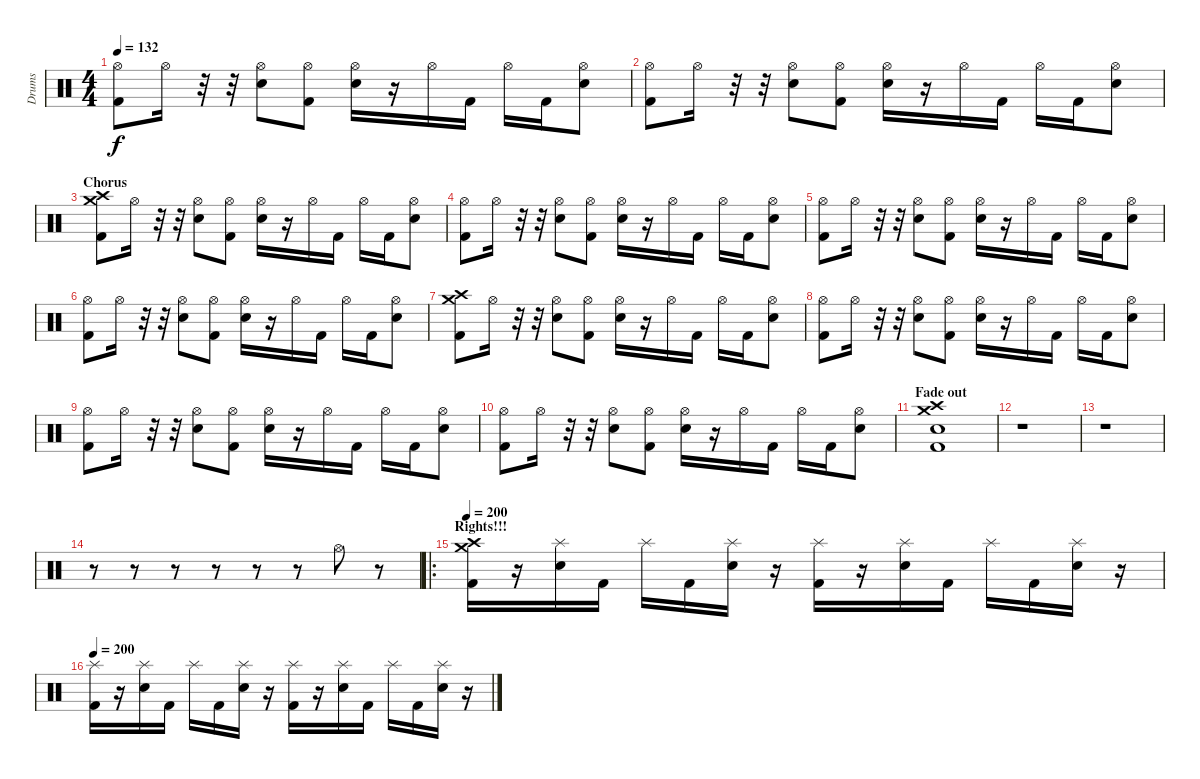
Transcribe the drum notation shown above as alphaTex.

\track ("Drums" "Drums") {instrument percussion}
\staff {score}
\articulation defaults
\ts (4 4)
\tempo 132
\clef neutral
\ks c
("Hi-Hat (open)" "Kick (hit) 2").8{dy f} "Hi-Hat (open)".16 r.32 r.32 ("Hi-Hat (open)" "Snare (hit) 2").8 ("Hi-Hat (open)" "Kick (hit) 2").8 ("Hi-Hat (open)" "Snare (hit) 2").16 r.16 "Hi-Hat (open)".16 "Kick (hit) 2".16 "Hi-Hat (open)".16 "Kick (hit) 2".16 ("Hi-Hat (open)" "Snare (hit) 2").8 |
("Hi-Hat (open)" "Kick (hit) 2").8 "Hi-Hat (open)".16 r.32 r.32 ("Hi-Hat (open)" "Snare (hit) 2").8 ("Hi-Hat (open)" "Kick (hit) 2").8 ("Hi-Hat (open)" "Snare (hit) 2").16 r.16 "Hi-Hat (open)".16 "Kick (hit) 2".16 "Hi-Hat (open)".16 "Kick (hit) 2".16 ("Hi-Hat (open)" "Snare (hit) 2").8 |
\section ("" "Chorus")
("Crash medium (hit)" "Crash high (hit)" "Kick (hit) 2").8 "Hi-Hat (open)".16 r.32 r.32 ("Hi-Hat (open)" "Snare (hit) 2").8 ("Hi-Hat (open)" "Kick (hit) 2").8 ("Hi-Hat (open)" "Snare (hit) 2").16 r.16 "Hi-Hat (open)".16 "Kick (hit) 2".16 "Hi-Hat (open)".16 "Kick (hit) 2".16 ("Hi-Hat (open)" "Snare (hit) 2").8 |
("Hi-Hat (open)" "Kick (hit) 2").8 "Hi-Hat (open)".16 r.32 r.32 ("Hi-Hat (open)" "Snare (hit) 2").8 ("Hi-Hat (open)" "Kick (hit) 2").8 ("Hi-Hat (open)" "Snare (hit) 2").16 r.16 "Hi-Hat (open)".16 "Kick (hit) 2".16 "Hi-Hat (open)".16 "Kick (hit) 2".16 ("Hi-Hat (open)" "Snare (hit) 2").8 |
("Hi-Hat (open)" "Kick (hit) 2").8 "Hi-Hat (open)".16 r.32 r.32 ("Hi-Hat (open)" "Snare (hit) 2").8 ("Hi-Hat (open)" "Kick (hit) 2").8 ("Hi-Hat (open)" "Snare (hit) 2").16 r.16 "Hi-Hat (open)".16 "Kick (hit) 2".16 "Hi-Hat (open)".16 "Kick (hit) 2".16 ("Hi-Hat (open)" "Snare (hit) 2").8 |
("Hi-Hat (open)" "Kick (hit) 2").8 "Hi-Hat (open)".16 r.32 r.32 ("Hi-Hat (open)" "Snare (hit) 2").8 ("Hi-Hat (open)" "Kick (hit) 2").8 ("Hi-Hat (open)" "Snare (hit) 2").16 r.16 "Hi-Hat (open)".16 "Kick (hit) 2".16 "Hi-Hat (open)".16 "Kick (hit) 2".16 ("Hi-Hat (open)" "Snare (hit) 2").8 |
("Crash medium (hit)" "Crash high (hit)" "Kick (hit) 2").8 "Hi-Hat (open)".16 r.32 r.32 ("Hi-Hat (open)" "Snare (hit) 2").8 ("Hi-Hat (open)" "Kick (hit) 2").8 ("Hi-Hat (open)" "Snare (hit) 2").16 r.16 "Hi-Hat (open)".16 "Kick (hit) 2".16 "Hi-Hat (open)".16 "Kick (hit) 2".16 ("Hi-Hat (open)" "Snare (hit) 2").8 |
("Hi-Hat (open)" "Kick (hit) 2").8 "Hi-Hat (open)".16 r.32 r.32 ("Hi-Hat (open)" "Snare (hit) 2").8 ("Hi-Hat (open)" "Kick (hit) 2").8 ("Hi-Hat (open)" "Snare (hit) 2").16 r.16 "Hi-Hat (open)".16 "Kick (hit) 2".16 "Hi-Hat (open)".16 "Kick (hit) 2".16 ("Hi-Hat (open)" "Snare (hit) 2").8 |
("Hi-Hat (open)" "Kick (hit) 2").8 "Hi-Hat (open)".16 r.32 r.32 ("Hi-Hat (open)" "Snare (hit) 2").8 ("Hi-Hat (open)" "Kick (hit) 2").8 ("Hi-Hat (open)" "Snare (hit) 2").16 r.16 "Hi-Hat (open)".16 "Kick (hit) 2".16 "Hi-Hat (open)".16 "Kick (hit) 2".16 ("Hi-Hat (open)" "Snare (hit) 2").8 |
("Hi-Hat (open)" "Kick (hit) 2").8 "Hi-Hat (open)".16 r.32 r.32 ("Hi-Hat (open)" "Snare (hit) 2").8 ("Hi-Hat (open)" "Kick (hit) 2").8 ("Hi-Hat (open)" "Snare (hit) 2").16 r.16 "Hi-Hat (open)".16 "Kick (hit) 2".16 "Hi-Hat (open)".16 "Kick (hit) 2".16 ("Hi-Hat (open)" "Snare (hit) 2").8 |
\section ("" "Fade out")
("Crash medium (hit)" "Crash high (hit)" "Snare (hit) 2" "Kick (hit) 2").1 |
r.1 |
r.1 |
r.8 r.8 r.8 r.8 r.8 r.8 "Hi-Hat (open)".8 r.8 |
\ro
\section ("" "Rights!!!")
\tempo 200
("Crash medium (hit)" "Crash high (hit)" "Kick (hit) 2").16 r.16 ("Splash (hit)" "Snare (hit) 2").16 "Kick (hit) 2".16 "Splash (hit)".16 "Kick (hit) 2".16 ("Splash (hit)" "Snare (hit) 2").16 r.16 ("Splash (hit)" "Kick (hit) 2").16 r.16 ("Splash (hit)" "Snare (hit) 2").16 "Kick (hit) 2".16 "Splash (hit)".16 "Kick (hit) 2".16 ("Splash (hit)" "Snare (hit) 2").16 r.16 |
\tempo 200
("Splash (hit)" "Kick (hit) 2").16 r.16 ("Splash (hit)" "Snare (hit) 2").16 "Kick (hit) 2".16 "Splash (hit)".16 "Kick (hit) 2".16 ("Splash (hit)" "Snare (hit) 2").16 r.16 ("Splash (hit)" "Kick (hit) 2").16 r.16 ("Splash (hit)" "Snare (hit) 2").16 "Kick (hit) 2".16 "Splash (hit)".16 "Kick (hit) 2".16 ("Splash (hit)" "Snare (hit) 2").16 r.16
